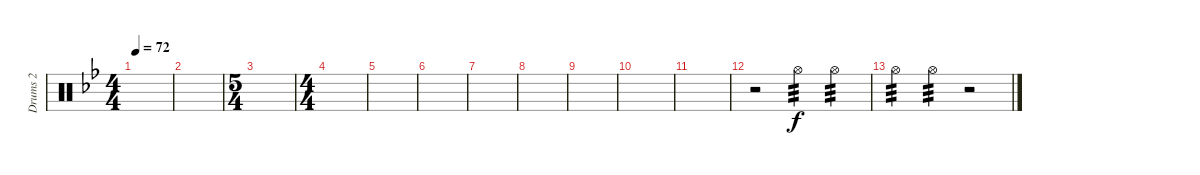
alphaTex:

\track ("Drums 2" "Drums 2") {instrument percussion}
\staff {score}
\articulation defaults
\ts (4 4)
\tempo 72
\clef neutral
\ks bb
|
|
\ts (5 4)
|
\ts (4 4)
|
|
|
|
|
|
|
|
r.2 "Hi-Hat (open)".4{tp 3} "Hi-Hat (open)".4{tp 3} |
"Hi-Hat (open)".4{tp 3} "Hi-Hat (open)".4{tp 3} r.2
